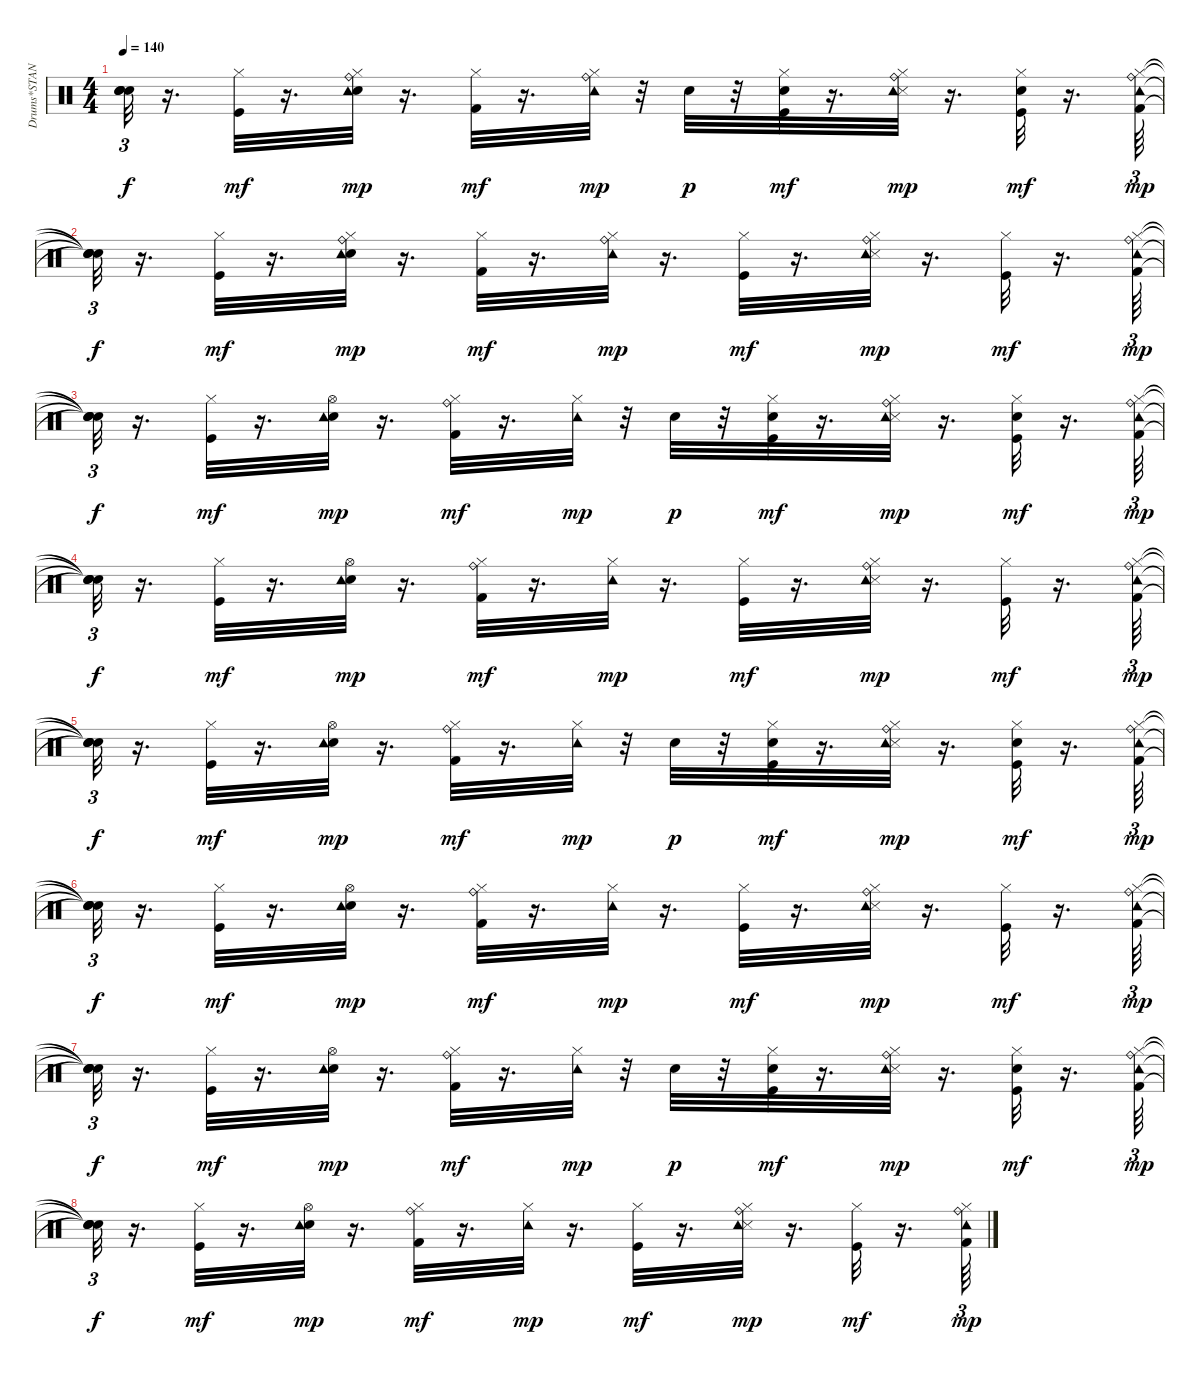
\track ("Drums*STANDARD      " "Drums*STAN") {instrument percussion}
\staff {score}
\articulation defaults
\ts (4 4)
\tempo 140
\clef neutral
\ks c
("Snare (hit)"{t} "Snare (hit)"{t} "Snare (hit)"{t} "Snare (hit)"{t}).32{tu (3 2) dy f} r.16{d} ("Hi-Hat (closed)" "Kick (hit)").32{dy mf} r.16{d} ("Snare (hit) 2" "Hi-Hat (closed)" "Ride (bell)" "Tambourine (hit)").32{dy mp} r.16{d} ("Kick (hit) 2" "Hi-Hat (closed)").32{dy mf} r.16{d} ("Hi-Hat (closed)" "Ride (bell)" "Tambourine (hit)").32{dy mp} r.32 "Electric Snare (hit)".32{dy p} r.32 ("Hi-Hat (closed)" "Electric Snare (hit)" "Kick (hit)").32{dy mf} r.16{d} ("Hi-Hat (closed)" "Snare (side stick) 3" "Ride (bell)" "Tambourine (hit)").32{dy mp} r.16{d} ("Hi-Hat (closed)" "Electric Snare (hit)" "Kick (hit)").32{dy mf} r.16{d} ("Kick (hit) 2" "Hi-Hat (closed)" "Ride (bell)" "Tambourine (hit)").64{tu (3 2) dy mp} |
("Snare (hit)"{t} "Snare (hit)"{t} "Snare (hit)"{t} "Snare (hit)"{t}).32{tu (3 2) dy f} r.16{d} ("Hi-Hat (closed)" "Kick (hit)").32{dy mf} r.16{d} ("Snare (hit) 2" "Hi-Hat (closed)" "Ride (bell)" "Tambourine (hit)").32{dy mp} r.16{d} ("Kick (hit) 2" "Hi-Hat (closed)").32{dy mf} r.16{d} ("Hi-Hat (closed)" "Ride (bell)" "Tambourine (hit)").32{dy mp} r.16{d} ("Hi-Hat (closed)" "Kick (hit)").32{dy mf} r.16{d} ("Hi-Hat (closed)" "Snare (side stick) 3" "Ride (bell)" "Tambourine (hit)").32{dy mp} r.16{d} ("Hi-Hat (closed)" "Kick (hit)").32{dy mf} r.16{d} ("Kick (hit) 2" "Hi-Hat (closed)" "Ride (bell)" "Tambourine (hit)").64{tu (3 2) dy mp} |
("Snare (hit)"{t} "Snare (hit)"{t} "Snare (hit)"{t} "Snare (hit)"{t}).32{tu (3 2) dy f} r.16{d} ("Hi-Hat (closed)" "Kick (hit)").32{dy mf} r.16{d} ("Snare (hit) 2" "Hi-Hat (open)" "Tambourine (hit)").32{dy mp} r.16{d} ("Kick (hit) 2" "Hi-Hat (closed)" "Ride (bell)").32{dy mf} r.16{d} ("Hi-Hat (closed)" "Tambourine (hit)").32{dy mp} r.32 "Electric Snare (hit)".32{dy p} r.32 ("Electric Snare (hit)" "Hi-Hat (closed)" "Kick (hit)").32{dy mf} r.16{d} ("Hi-Hat (closed)" "Snare (side stick) 3" "Ride (bell)" "Tambourine (hit)").32{dy mp} r.16{d} ("Electric Snare (hit)" "Hi-Hat (closed)" "Kick (hit)").32{dy mf} r.16{d} ("Kick (hit) 2" "Hi-Hat (closed)" "Ride (bell)" "Tambourine (hit)").64{tu (3 2) dy mp} |
("Snare (hit)"{t} "Snare (hit)"{t} "Snare (hit)"{t} "Snare (hit)"{t}).32{tu (3 2) dy f} r.16{d} ("Hi-Hat (closed)" "Kick (hit)").32{dy mf} r.16{d} ("Snare (hit) 2" "Hi-Hat (open)" "Tambourine (hit)").32{dy mp} r.16{d} ("Kick (hit) 2" "Hi-Hat (closed)" "Ride (bell)").32{dy mf} r.16{d} ("Hi-Hat (closed)" "Tambourine (hit)").32{dy mp} r.16{d} ("Hi-Hat (closed)" "Kick (hit)").32{dy mf} r.16{d} ("Hi-Hat (closed)" "Snare (side stick) 3" "Ride (bell)" "Tambourine (hit)").32{dy mp} r.16{d} ("Hi-Hat (closed)" "Kick (hit)").32{dy mf} r.16{d} ("Kick (hit) 2" "Hi-Hat (closed)" "Ride (bell)" "Tambourine (hit)").64{tu (3 2) dy mp} |
("Snare (hit)"{t} "Snare (hit)"{t} "Snare (hit)"{t} "Snare (hit)"{t}).32{tu (3 2) dy f} r.16{d} ("Hi-Hat (closed)" "Kick (hit)").32{dy mf} r.16{d} ("Snare (hit) 2" "Hi-Hat (open)" "Tambourine (hit)").32{dy mp} r.16{d} ("Kick (hit) 2" "Hi-Hat (closed)" "Ride (bell)").32{dy mf} r.16{d} ("Hi-Hat (closed)" "Tambourine (hit)").32{dy mp} r.32 "Electric Snare (hit)".32{dy p} r.32 ("Hi-Hat (closed)" "Electric Snare (hit)" "Kick (hit)").32{dy mf} r.16{d} ("Hi-Hat (closed)" "Snare (side stick) 3" "Ride (bell)" "Tambourine (hit)").32{dy mp} r.16{d} ("Hi-Hat (closed)" "Electric Snare (hit)" "Kick (hit)").32{dy mf} r.16{d} ("Kick (hit) 2" "Hi-Hat (closed)" "Ride (bell)" "Tambourine (hit)").64{tu (3 2) dy mp} |
("Snare (hit)"{t} "Snare (hit)"{t} "Snare (hit)"{t} "Snare (hit)"{t}).32{tu (3 2) dy f} r.16{d} ("Hi-Hat (closed)" "Kick (hit)").32{dy mf} r.16{d} ("Snare (hit) 2" "Hi-Hat (open)" "Tambourine (hit)").32{dy mp} r.16{d} ("Kick (hit) 2" "Hi-Hat (closed)" "Ride (bell)").32{dy mf} r.16{d} ("Hi-Hat (closed)" "Tambourine (hit)").32{dy mp} r.16{d} ("Hi-Hat (closed)" "Kick (hit)").32{dy mf} r.16{d} ("Hi-Hat (closed)" "Snare (side stick) 3" "Ride (bell)" "Tambourine (hit)").32{dy mp} r.16{d} ("Hi-Hat (closed)" "Kick (hit)").32{dy mf} r.16{d} ("Kick (hit) 2" "Hi-Hat (closed)" "Ride (bell)" "Tambourine (hit)").64{tu (3 2) dy mp} |
("Snare (hit)"{t} "Snare (hit)"{t} "Snare (hit)"{t} "Snare (hit)"{t}).32{tu (3 2) dy f} r.16{d} ("Hi-Hat (closed)" "Kick (hit)").32{dy mf} r.16{d} ("Snare (hit) 2" "Hi-Hat (open)" "Tambourine (hit)").32{dy mp} r.16{d} ("Kick (hit) 2" "Hi-Hat (closed)" "Ride (bell)").32{dy mf} r.16{d} ("Hi-Hat (closed)" "Tambourine (hit)").32{dy mp} r.32 "Electric Snare (hit)".32{dy p} r.32 ("Hi-Hat (closed)" "Electric Snare (hit)" "Kick (hit)").32{dy mf} r.16{d} ("Hi-Hat (closed)" "Snare (side stick) 3" "Ride (bell)" "Tambourine (hit)").32{dy mp} r.16{d} ("Hi-Hat (closed)" "Electric Snare (hit)" "Kick (hit)").32{dy mf} r.16{d} ("Kick (hit) 2" "Hi-Hat (closed)" "Ride (bell)" "Tambourine (hit)").64{tu (3 2) dy mp} |
("Snare (hit)"{t} "Snare (hit)"{t} "Snare (hit)"{t} "Snare (hit)"{t}).32{tu (3 2) dy f} r.16{d} ("Hi-Hat (closed)" "Kick (hit)").32{dy mf} r.16{d} ("Snare (hit) 2" "Hi-Hat (open)" "Tambourine (hit)").32{dy mp} r.16{d} ("Kick (hit) 2" "Hi-Hat (closed)" "Ride (bell)").32{dy mf} r.16{d} ("Hi-Hat (closed)" "Tambourine (hit)").32{dy mp} r.16{d} ("Hi-Hat (closed)" "Kick (hit)").32{dy mf} r.16{d} ("Hi-Hat (closed)" "Snare (side stick) 3" "Ride (bell)" "Tambourine (hit)").32{dy mp} r.16{d} ("Hi-Hat (closed)" "Kick (hit)").32{dy mf} r.16{d} ("Kick (hit) 2" "Hi-Hat (closed)" "Ride (bell)" "Tambourine (hit)").64{tu (3 2) dy mp}
